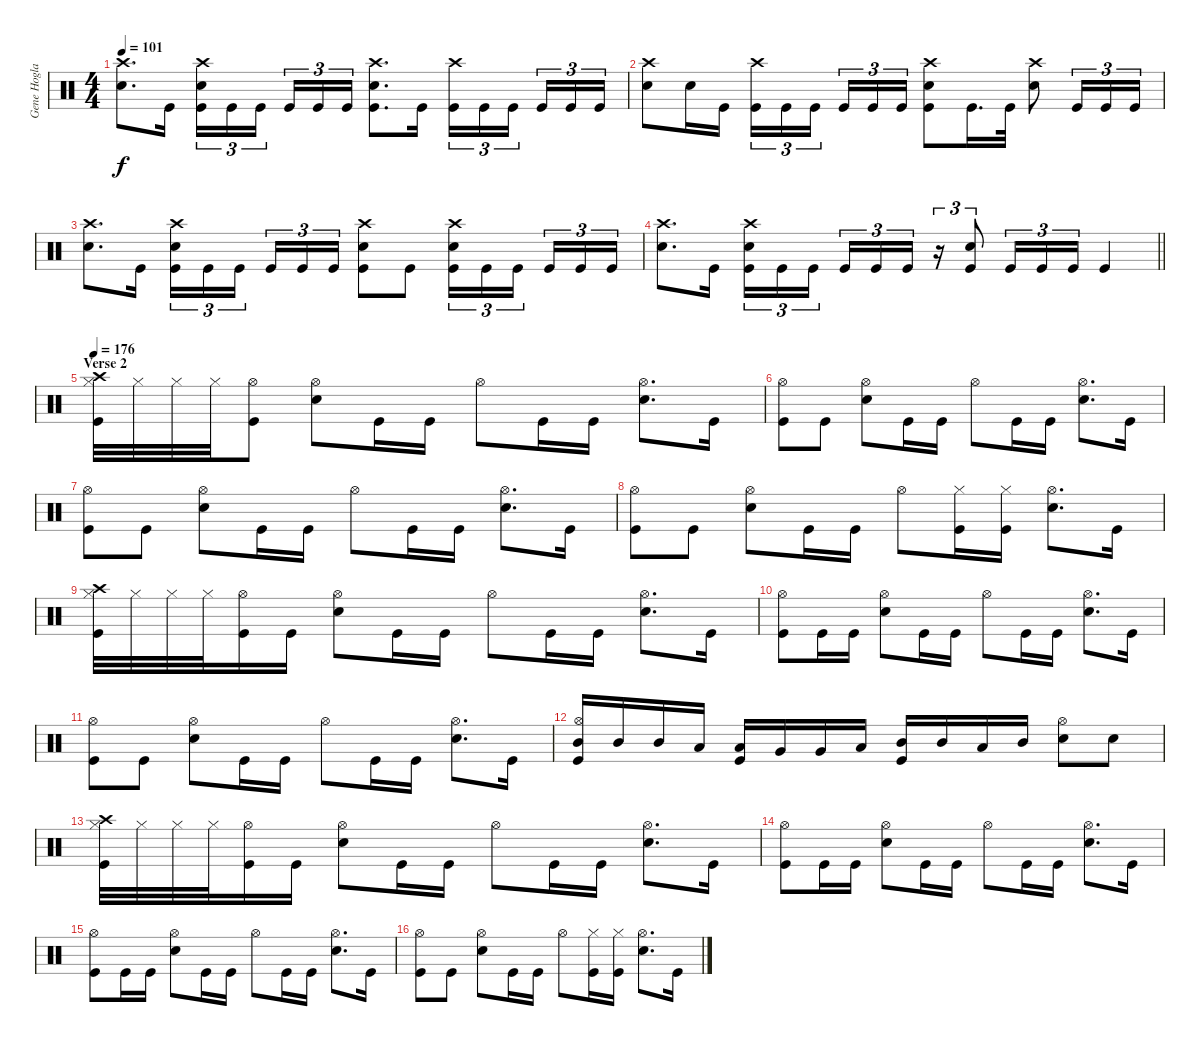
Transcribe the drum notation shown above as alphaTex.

\track ("Gene Hoglan " "Gene Hogla") {instrument percussion}
\staff {score}
\articulation defaults
\ts (4 4)
\tempo 101
\clef neutral
\ks c
("Crash high (hit)" "Snare (hit) 2").8{d dy f} "Kick (hit)".16 ("Crash high (hit)" "Snare (hit) 2" "Kick (hit)").16{tu (3 2)} "Kick (hit)".16{tu (3 2)} "Kick (hit)".16{tu (3 2)} "Kick (hit)".16{tu (3 2)} "Kick (hit)".16{tu (3 2)} "Kick (hit)".16{tu (3 2)} ("Crash high (hit)" "Snare (hit) 2" "Kick (hit)").8{d} "Kick (hit)".16 ("Crash high (hit)" "Kick (hit)").16{tu (3 2)} "Kick (hit)".16{tu (3 2)} "Kick (hit)".16{tu (3 2)} "Kick (hit)".16{tu (3 2)} "Kick (hit)".16{tu (3 2)} "Kick (hit)".16{tu (3 2)} |
("Crash high (hit)" "Snare (hit) 2").8 "Snare (hit) 2".16 "Kick (hit)".16 ("Crash high (hit)" "Kick (hit)").16{tu (3 2)} "Kick (hit)".16{tu (3 2)} "Kick (hit)".16{tu (3 2)} "Kick (hit)".16{tu (3 2)} "Kick (hit)".16{tu (3 2)} "Kick (hit)".16{tu (3 2)} ("Crash high (hit)" "Snare (hit) 2" "Kick (hit)").8 "Kick (hit)".16{d} "Kick (hit)".32 ("Crash high (hit)" "Snare (hit) 2").8 "Kick (hit)".16{tu (3 2)} "Kick (hit)".16{tu (3 2)} "Kick (hit)".16{tu (3 2)} |
("Crash high (hit)" "Snare (hit) 2").8{d} "Kick (hit)".16 ("Crash high (hit)" "Snare (hit) 2" "Kick (hit)").16{tu (3 2)} "Kick (hit)".16{tu (3 2)} "Kick (hit)".16{tu (3 2)} "Kick (hit)".16{tu (3 2)} "Kick (hit)".16{tu (3 2)} "Kick (hit)".16{tu (3 2)} ("Crash high (hit)" "Snare (hit) 2" "Kick (hit)").8 "Kick (hit)".8 ("Crash high (hit)" "Snare (hit) 2" "Kick (hit)").16{tu (3 2)} "Kick (hit)".16{tu (3 2)} "Kick (hit)".16{tu (3 2)} "Kick (hit)".16{tu (3 2)} "Kick (hit)".16{tu (3 2)} "Kick (hit)".16{tu (3 2)} |
\barLineRight lightlight
("Crash high (hit)" "Snare (hit) 2").8{d} "Kick (hit)".16 ("Crash high (hit)" "Snare (hit) 2" "Kick (hit)").16{tu (3 2)} "Kick (hit)".16{tu (3 2)} "Kick (hit)".16{tu (3 2)} "Kick (hit)".16{tu (3 2)} "Kick (hit)".16{tu (3 2)} "Kick (hit)".16{tu (3 2)} r.16{tu (3 2)} ("Snare (hit) 2" "Kick (hit)").8{tu (3 2)} "Kick (hit)".16{tu (3 2)} "Kick (hit)".16{tu (3 2)} "Kick (hit)".16{tu (3 2)} "Kick (hit)".4 |
\section ("" "Verse 2")
\tempo 176
("Hi-Hat (closed)" "Crash high (hit)" "Kick (hit)").32 "Hi-Hat (closed)".32 "Hi-Hat (closed)".32 "Hi-Hat (closed)".32 ("Hi-Hat (open)" "Kick (hit)").8 ("Hi-Hat (open)" "Snare (hit) 2").8 "Kick (hit)".16 "Kick (hit)".16 "Hi-Hat (open)".8 "Kick (hit)".16 "Kick (hit)".16 ("Hi-Hat (open)" "Snare (hit) 2").8{d} "Kick (hit)".16 |
("Hi-Hat (open)" "Kick (hit)").8 "Kick (hit)".8 ("Hi-Hat (open)" "Snare (hit) 2").8 "Kick (hit)".16 "Kick (hit)".16 "Hi-Hat (open)".8 "Kick (hit)".16 "Kick (hit)".16 ("Hi-Hat (open)" "Snare (hit) 2").8{d} "Kick (hit)".16 |
("Hi-Hat (open)" "Kick (hit)").8 "Kick (hit)".8 ("Hi-Hat (open)" "Snare (hit) 2").8 "Kick (hit)".16 "Kick (hit)".16 "Hi-Hat (open)".8 "Kick (hit)".16 "Kick (hit)".16 ("Hi-Hat (open)" "Snare (hit) 2").8{d} "Kick (hit)".16 |
("Hi-Hat (open)" "Kick (hit)").8 "Kick (hit)".8 ("Hi-Hat (open)" "Snare (hit) 2").8 "Kick (hit)".16 "Kick (hit)".16 "Hi-Hat (open)".8 ("Hi-Hat (closed)" "Kick (hit)").16 ("Hi-Hat (closed)" "Kick (hit)").16 ("Hi-Hat (open)" "Snare (hit) 2").8{d} "Kick (hit)".16 |
("Hi-Hat (closed)" "Crash high (hit)" "Kick (hit)").32 "Hi-Hat (closed)".32 "Hi-Hat (closed)".32 "Hi-Hat (closed)".32 ("Hi-Hat (open)" "Kick (hit)").16 "Kick (hit)".16 ("Hi-Hat (open)" "Snare (hit) 2").8 "Kick (hit)".16 "Kick (hit)".16 "Hi-Hat (open)".8 "Kick (hit)".16 "Kick (hit)".16 ("Hi-Hat (open)" "Snare (hit) 2").8{d} "Kick (hit)".16 |
("Hi-Hat (open)" "Kick (hit)").8 "Kick (hit)".16 "Kick (hit)".16 ("Hi-Hat (open)" "Snare (hit) 2").8 "Kick (hit)".16 "Kick (hit)".16 "Hi-Hat (open)".8 "Kick (hit)".16 "Kick (hit)".16 ("Hi-Hat (open)" "Snare (hit) 2").8{d} "Kick (hit)".16 |
("Hi-Hat (open)" "Kick (hit)").8 "Kick (hit)".8 ("Hi-Hat (open)" "Snare (hit) 2").8 "Kick (hit)".16 "Kick (hit)".16 "Hi-Hat (open)".8 "Kick (hit)".16 "Kick (hit)".16 ("Hi-Hat (open)" "Snare (hit) 2").8{d} "Kick (hit)".16 |
("Hi-Hat (open)" "Mid Tom (hit)" "Kick (hit)").16 "Mid Tom (hit)".16 "Mid Tom (hit)".16 "Low Tom (hit)".16 ("Low Tom (hit)" "Kick (hit)").16 "Very Low Tom (hit)".16 "Very Low Tom (hit)".16 "Low Tom (hit)".16 ("Mid Tom (hit)" "Kick (hit)").16 "Mid Tom (hit)".16 "Low Tom (hit)".16 "Mid Tom (hit)".16 ("Hi-Hat (open)" "Snare (hit) 2").8 "Snare (hit) 2".8 |
("Hi-Hat (closed)" "Crash high (hit)" "Kick (hit)").32 "Hi-Hat (closed)".32 "Hi-Hat (closed)".32 "Hi-Hat (closed)".32 ("Hi-Hat (open)" "Kick (hit)").16 "Kick (hit)".16 ("Hi-Hat (open)" "Snare (hit) 2").8 "Kick (hit)".16 "Kick (hit)".16 "Hi-Hat (open)".8 "Kick (hit)".16 "Kick (hit)".16 ("Hi-Hat (open)" "Snare (hit) 2").8{d} "Kick (hit)".16 |
("Hi-Hat (open)" "Kick (hit)").8 "Kick (hit)".16 "Kick (hit)".16 ("Hi-Hat (open)" "Snare (hit) 2").8 "Kick (hit)".16 "Kick (hit)".16 "Hi-Hat (open)".8 "Kick (hit)".16 "Kick (hit)".16 ("Hi-Hat (open)" "Snare (hit) 2").8{d} "Kick (hit)".16 |
("Hi-Hat (open)" "Kick (hit)").8 "Kick (hit)".16 "Kick (hit)".16 ("Hi-Hat (open)" "Snare (hit) 2").8 "Kick (hit)".16 "Kick (hit)".16 "Hi-Hat (open)".8 "Kick (hit)".16 "Kick (hit)".16 ("Hi-Hat (open)" "Snare (hit) 2").8{d} "Kick (hit)".16 |
("Hi-Hat (open)" "Kick (hit)").8 "Kick (hit)".8 ("Hi-Hat (open)" "Snare (hit) 2").8 "Kick (hit)".16 "Kick (hit)".16 "Hi-Hat (open)".8 ("Hi-Hat (closed)" "Kick (hit)").16 ("Hi-Hat (closed)" "Kick (hit)").16 ("Hi-Hat (open)" "Snare (hit) 2").8{d} "Kick (hit)".16
